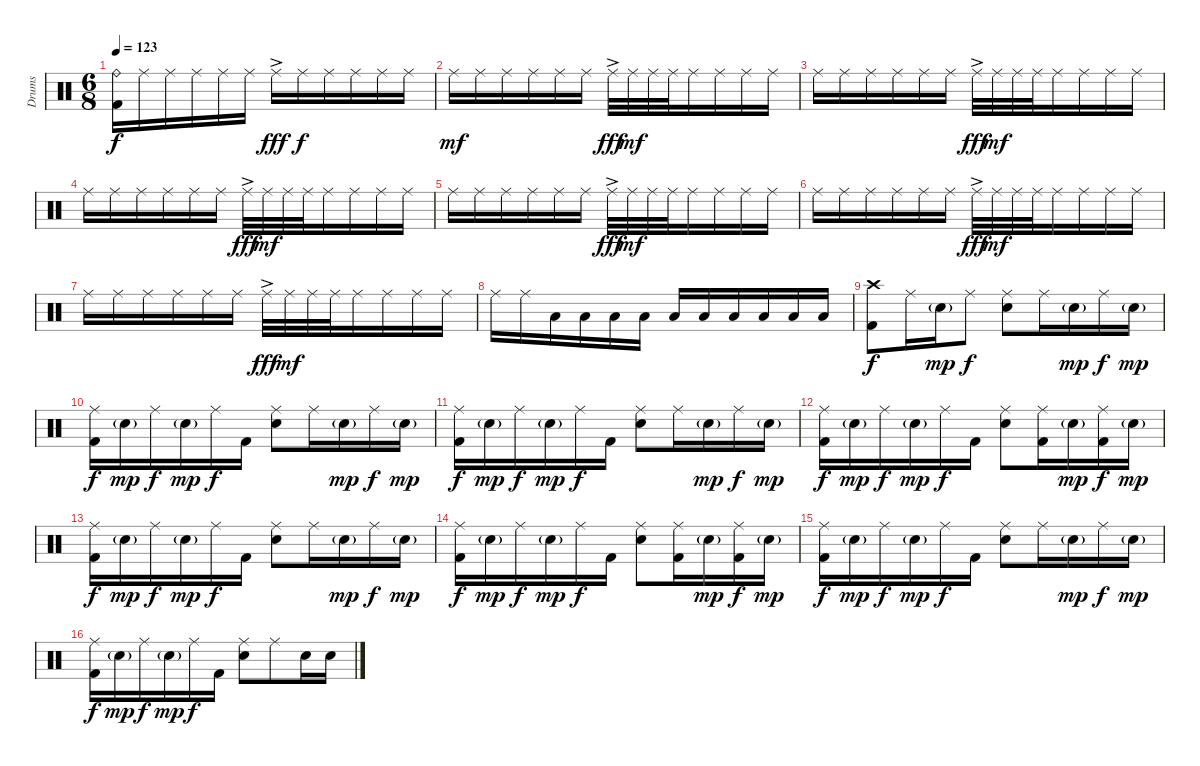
\track ("Drums" "Drums") {instrument percussion}
\staff {score}
\articulation defaults
\ts (6 8)
\tempo 123
\clef neutral
\ks c
("Ride (bell)" "Kick (hit) 2").16{dy f} "Ride (middle)".16 "Ride (middle)".16 "Ride (middle)".16 "Ride (middle)".16 "Ride (middle)".16 "Ride (middle)"{ac}.16{dy fff} "Ride (middle)".16{dy f} "Ride (middle)".16 "Ride (middle)".16 "Ride (middle)".16 "Ride (middle)".16 |
"Ride (middle)".16{dy mf} "Ride (middle)".16 "Ride (middle)".16 "Ride (middle)".16 "Ride (middle)".16 "Ride (middle)".16 "Ride (middle)"{ac}.32{dy fff} "Ride (middle)".32{dy mf} "Ride (middle)".32 "Ride (middle)".32 "Ride (middle)".16 "Ride (middle)".16 "Ride (middle)".16 "Ride (middle)".16 |
"Ride (middle)".16 "Ride (middle)".16 "Ride (middle)".16 "Ride (middle)".16 "Ride (middle)".16 "Ride (middle)".16 "Ride (middle)"{ac}.32{dy fff} "Ride (middle)".32{dy mf} "Ride (middle)".32 "Ride (middle)".32 "Ride (middle)".16 "Ride (middle)".16 "Ride (middle)".16 "Ride (middle)".16 |
"Ride (middle)".16 "Ride (middle)".16 "Ride (middle)".16 "Ride (middle)".16 "Ride (middle)".16 "Ride (middle)".16 "Ride (middle)"{ac}.32{dy fff} "Ride (middle)".32{dy mf} "Ride (middle)".32 "Ride (middle)".32 "Ride (middle)".16 "Ride (middle)".16 "Ride (middle)".16 "Ride (middle)".16 |
"Ride (middle)".16 "Ride (middle)".16 "Ride (middle)".16 "Ride (middle)".16 "Ride (middle)".16 "Ride (middle)".16 "Ride (middle)"{ac}.32{dy fff} "Ride (middle)".32{dy mf} "Ride (middle)".32 "Ride (middle)".32 "Ride (middle)".16 "Ride (middle)".16 "Ride (middle)".16 "Ride (middle)".16 |
"Ride (middle)".16 "Ride (middle)".16 "Ride (middle)".16 "Ride (middle)".16 "Ride (middle)".16 "Ride (middle)".16 "Ride (middle)"{ac}.32{dy fff} "Ride (middle)".32{dy mf} "Ride (middle)".32 "Ride (middle)".32 "Ride (middle)".16 "Ride (middle)".16 "Ride (middle)".16 "Ride (middle)".16 |
"Ride (middle)".16 "Ride (middle)".16 "Ride (middle)".16 "Ride (middle)".16 "Ride (middle)".16 "Ride (middle)".16 "Ride (middle)"{ac}.32{dy fff} "Ride (middle)".32{dy mf} "Ride (middle)".32 "Ride (middle)".32 "Ride (middle)".16 "Ride (middle)".16 "Ride (middle)".16 "Ride (middle)".16 |
"Ride (middle)".16 "Ride (middle)".16 "Low Tom (hit)".16 "Low Tom (hit)".16 "Low Tom (hit)".16 "Low Tom (hit)".16 "Low Tom (hit)".16 "Low Tom (hit)".16 "Low Tom (hit)".16 "Low Tom (hit)".16 "Low Tom (hit)".16 "Low Tom (hit)".16 |
("Crash high (hit)" "Kick (hit) 2").8{dy f} "Ride (middle)".16 "Electric Snare (hit)"{g}.16{dy mp} "Ride (middle)".8{dy f} ("Ride (middle)" "Electric Snare (hit)").8 "Ride (middle)".16 "Electric Snare (hit)"{g}.16{dy mp} "Ride (middle)".16{dy f} "Electric Snare (hit)"{g}.16{dy mp} |
("Ride (middle)" "Kick (hit) 2").16{dy f} "Electric Snare (hit)"{g}.16{dy mp} "Ride (middle)".16{dy f} "Electric Snare (hit)"{g}.16{dy mp} "Ride (middle)".16{dy f} "Kick (hit) 2".16 ("Ride (middle)" "Electric Snare (hit)").8 "Ride (middle)".16 "Electric Snare (hit)"{g}.16{dy mp} "Ride (middle)".16{dy f} "Electric Snare (hit)"{g}.16{dy mp} |
("Ride (middle)" "Kick (hit) 2").16{dy f} "Electric Snare (hit)"{g}.16{dy mp} "Ride (middle)".16{dy f} "Electric Snare (hit)"{g}.16{dy mp} "Ride (middle)".16{dy f} "Kick (hit) 2".16 ("Ride (middle)" "Electric Snare (hit)").8 "Ride (middle)".16 "Electric Snare (hit)"{g}.16{dy mp} "Ride (middle)".16{dy f} "Electric Snare (hit)"{g}.16{dy mp} |
("Ride (middle)" "Kick (hit) 2").16{dy f} "Electric Snare (hit)"{g}.16{dy mp} "Ride (middle)".16{dy f} "Electric Snare (hit)"{g}.16{dy mp} "Ride (middle)".16{dy f} "Kick (hit) 2".16 ("Ride (middle)" "Electric Snare (hit)").8 ("Ride (middle)" "Kick (hit) 2").16 "Electric Snare (hit)"{g}.16{dy mp} ("Ride (middle)" "Kick (hit) 2").16{dy f} "Electric Snare (hit)"{g}.16{dy mp} |
("Ride (middle)" "Kick (hit) 2").16{dy f} "Electric Snare (hit)"{g}.16{dy mp} "Ride (middle)".16{dy f} "Electric Snare (hit)"{g}.16{dy mp} "Ride (middle)".16{dy f} "Kick (hit) 2".16 ("Ride (middle)" "Electric Snare (hit)").8 "Ride (middle)".16 "Electric Snare (hit)"{g}.16{dy mp} "Ride (middle)".16{dy f} "Electric Snare (hit)"{g}.16{dy mp} |
("Ride (middle)" "Kick (hit) 2").16{dy f} "Electric Snare (hit)"{g}.16{dy mp} "Ride (middle)".16{dy f} "Electric Snare (hit)"{g}.16{dy mp} "Ride (middle)".16{dy f} "Kick (hit) 2".16 ("Ride (middle)" "Electric Snare (hit)").8 ("Ride (middle)" "Kick (hit) 2").16 "Electric Snare (hit)"{g}.16{dy mp} ("Ride (middle)" "Kick (hit) 2").16{dy f} "Electric Snare (hit)"{g}.16{dy mp} |
("Ride (middle)" "Kick (hit) 2").16{dy f} "Electric Snare (hit)"{g}.16{dy mp} "Ride (middle)".16{dy f} "Electric Snare (hit)"{g}.16{dy mp} "Ride (middle)".16{dy f} "Kick (hit) 2".16 ("Ride (middle)" "Electric Snare (hit)").8 "Ride (middle)".16 "Electric Snare (hit)"{g}.16{dy mp} "Ride (middle)".16{dy f} "Electric Snare (hit)"{g}.16{dy mp} |
("Ride (middle)" "Kick (hit) 2").16{dy f} "Electric Snare (hit)"{g}.16{dy mp} "Ride (middle)".16{dy f} "Electric Snare (hit)"{g}.16{dy mp} "Ride (middle)".16{dy f} "Kick (hit) 2".16 ("Ride (middle)" "Electric Snare (hit)").8 "Ride (middle)".8 "Electric Snare (hit)".16 "Electric Snare (hit)".16
